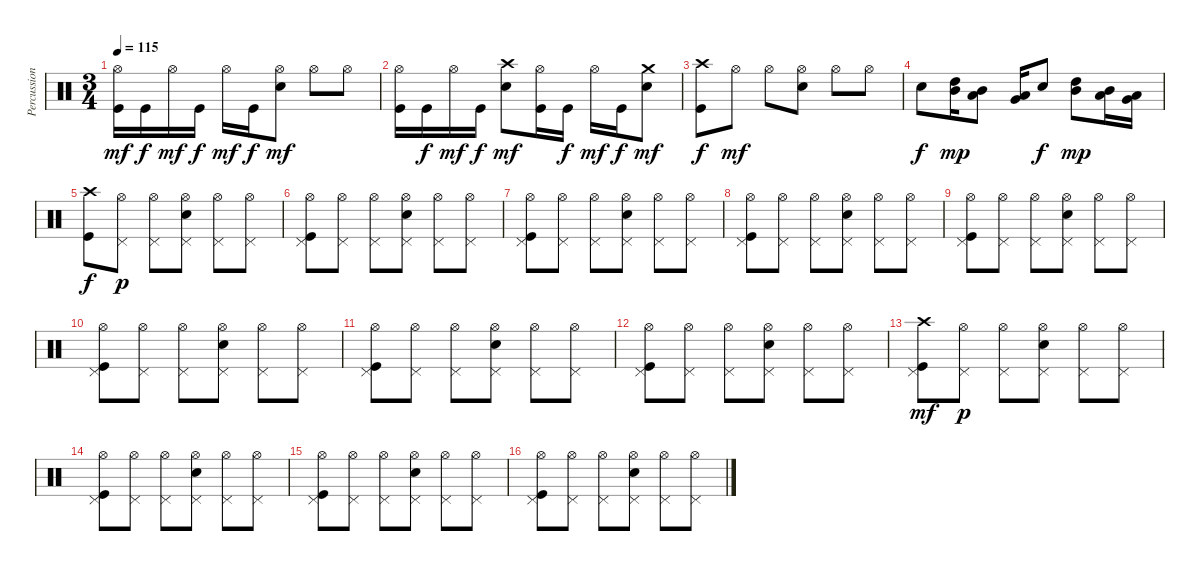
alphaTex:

\track ("Percussions" "Percussion") {instrument percussion}
\staff {score}
\articulation defaults
\ts (3 4)
\tempo 115
\clef neutral
\ks c
("Kick (hit)" "Hi-Hat (open)").16{dy mf} "Kick (hit)".16{dy f} "Hi-Hat (open)".16{dy mf} "Kick (hit)".16{dy f} "Hi-Hat (open)".16{dy mf} "Kick (hit)".16{dy f} ("Electric Snare (hit)" "Hi-Hat (open)").8{dy mf} "Hi-Hat (open)".8 "Hi-Hat (open)".8 |
("Kick (hit)" "Hi-Hat (open)").16 "Kick (hit)".16{dy f} "Hi-Hat (open)".16{dy mf} "Kick (hit)".16{dy f} ("Electric Snare (hit)" "Crash high (hit)").8{dy mf} ("Kick (hit)" "Hi-Hat (open)").16 "Kick (hit)".16{dy f} "Hi-Hat (open)".16{dy mf} "Kick (hit)".16{dy f} ("Electric Snare (hit)" "Crash medium (hit)").8{dy mf} |
("Kick (hit)" "Crash high (hit)").8{dy f} "Hi-Hat (open)".8{dy mf} "Hi-Hat (open)".8 ("Electric Snare (hit)" "Hi-Hat (open)").8 "Hi-Hat (open)".8 "Hi-Hat (open)".8 |
"Electric Snare (hit)".8{dy f} ("Mid Tom (hit)" "High Tom (hit)").16{dy mp} ("Low Tom (hit)" "Mid Tom (hit)").8 ("Very Low Tom (hit)" "Low Tom (hit)").16 "Electric Snare (hit)".8{dy f} ("Mid Tom (hit)" "High Tom (hit)").8{dy mp} ("Low Tom (hit)" "Mid Tom (hit)").16 ("Very Low Tom (hit)" "Low Tom (hit)").16 |
("Kick (hit)" "Crash high (hit)").8{dy f} ("Pedal Hi-Hat (hit)" "Hi-Hat (open)").8{dy p} ("Pedal Hi-Hat (hit)" "Hi-Hat (open)").8 ("Electric Snare (hit)" "Pedal Hi-Hat (hit)" "Hi-Hat (open)").8 ("Pedal Hi-Hat (hit)" "Hi-Hat (open)").8 ("Pedal Hi-Hat (hit)" "Hi-Hat (open)").8 |
("Kick (hit)" "Pedal Hi-Hat (hit)" "Hi-Hat (open)").8 ("Pedal Hi-Hat (hit)" "Hi-Hat (open)").8 ("Pedal Hi-Hat (hit)" "Hi-Hat (open)").8 ("Electric Snare (hit)" "Pedal Hi-Hat (hit)" "Hi-Hat (open)").8 ("Pedal Hi-Hat (hit)" "Hi-Hat (open)").8 ("Pedal Hi-Hat (hit)" "Hi-Hat (open)").8 |
("Kick (hit)" "Pedal Hi-Hat (hit)" "Hi-Hat (open)").8 ("Pedal Hi-Hat (hit)" "Hi-Hat (open)").8 ("Pedal Hi-Hat (hit)" "Hi-Hat (open)").8 ("Electric Snare (hit)" "Pedal Hi-Hat (hit)" "Hi-Hat (open)").8 ("Pedal Hi-Hat (hit)" "Hi-Hat (open)").8 ("Pedal Hi-Hat (hit)" "Hi-Hat (open)").8 |
("Kick (hit)" "Pedal Hi-Hat (hit)" "Hi-Hat (open)").8 ("Pedal Hi-Hat (hit)" "Hi-Hat (open)").8 ("Pedal Hi-Hat (hit)" "Hi-Hat (open)").8 ("Electric Snare (hit)" "Pedal Hi-Hat (hit)" "Hi-Hat (open)").8 ("Pedal Hi-Hat (hit)" "Hi-Hat (open)").8 ("Pedal Hi-Hat (hit)" "Hi-Hat (open)").8 |
("Kick (hit)" "Pedal Hi-Hat (hit)" "Hi-Hat (open)").8 ("Pedal Hi-Hat (hit)" "Hi-Hat (open)").8 ("Pedal Hi-Hat (hit)" "Hi-Hat (open)").8 ("Electric Snare (hit)" "Pedal Hi-Hat (hit)" "Hi-Hat (open)").8 ("Pedal Hi-Hat (hit)" "Hi-Hat (open)").8 ("Pedal Hi-Hat (hit)" "Hi-Hat (open)").8 |
("Kick (hit)" "Pedal Hi-Hat (hit)" "Hi-Hat (open)").8 ("Pedal Hi-Hat (hit)" "Hi-Hat (open)").8 ("Pedal Hi-Hat (hit)" "Hi-Hat (open)").8 ("Electric Snare (hit)" "Pedal Hi-Hat (hit)" "Hi-Hat (open)").8 ("Pedal Hi-Hat (hit)" "Hi-Hat (open)").8 ("Pedal Hi-Hat (hit)" "Hi-Hat (open)").8 |
("Kick (hit)" "Pedal Hi-Hat (hit)" "Hi-Hat (open)").8 ("Pedal Hi-Hat (hit)" "Hi-Hat (open)").8 ("Pedal Hi-Hat (hit)" "Hi-Hat (open)").8 ("Electric Snare (hit)" "Pedal Hi-Hat (hit)" "Hi-Hat (open)").8 ("Pedal Hi-Hat (hit)" "Hi-Hat (open)").8 ("Pedal Hi-Hat (hit)" "Hi-Hat (open)").8 |
("Kick (hit)" "Pedal Hi-Hat (hit)" "Hi-Hat (open)").8 ("Pedal Hi-Hat (hit)" "Hi-Hat (open)").8 ("Pedal Hi-Hat (hit)" "Hi-Hat (open)").8 ("Electric Snare (hit)" "Pedal Hi-Hat (hit)" "Hi-Hat (open)").8 ("Pedal Hi-Hat (hit)" "Hi-Hat (open)").8 ("Pedal Hi-Hat (hit)" "Hi-Hat (open)").8 |
("Kick (hit)" "Pedal Hi-Hat (hit)" "Crash high (hit)").8{dy mf} ("Pedal Hi-Hat (hit)" "Hi-Hat (open)").8{dy p} ("Pedal Hi-Hat (hit)" "Hi-Hat (open)").8 ("Electric Snare (hit)" "Pedal Hi-Hat (hit)" "Hi-Hat (open)").8 ("Pedal Hi-Hat (hit)" "Hi-Hat (open)").8 ("Pedal Hi-Hat (hit)" "Hi-Hat (open)").8 |
("Kick (hit)" "Pedal Hi-Hat (hit)" "Hi-Hat (open)").8 ("Pedal Hi-Hat (hit)" "Hi-Hat (open)").8 ("Pedal Hi-Hat (hit)" "Hi-Hat (open)").8 ("Electric Snare (hit)" "Pedal Hi-Hat (hit)" "Hi-Hat (open)").8 ("Pedal Hi-Hat (hit)" "Hi-Hat (open)").8 ("Pedal Hi-Hat (hit)" "Hi-Hat (open)").8 |
("Kick (hit)" "Pedal Hi-Hat (hit)" "Hi-Hat (open)").8 ("Pedal Hi-Hat (hit)" "Hi-Hat (open)").8 ("Pedal Hi-Hat (hit)" "Hi-Hat (open)").8 ("Electric Snare (hit)" "Pedal Hi-Hat (hit)" "Hi-Hat (open)").8 ("Pedal Hi-Hat (hit)" "Hi-Hat (open)").8 ("Pedal Hi-Hat (hit)" "Hi-Hat (open)").8 |
("Kick (hit)" "Pedal Hi-Hat (hit)" "Hi-Hat (open)").8 ("Pedal Hi-Hat (hit)" "Hi-Hat (open)").8 ("Pedal Hi-Hat (hit)" "Hi-Hat (open)").8 ("Electric Snare (hit)" "Pedal Hi-Hat (hit)" "Hi-Hat (open)").8 ("Pedal Hi-Hat (hit)" "Hi-Hat (open)").8 ("Pedal Hi-Hat (hit)" "Hi-Hat (open)").8
